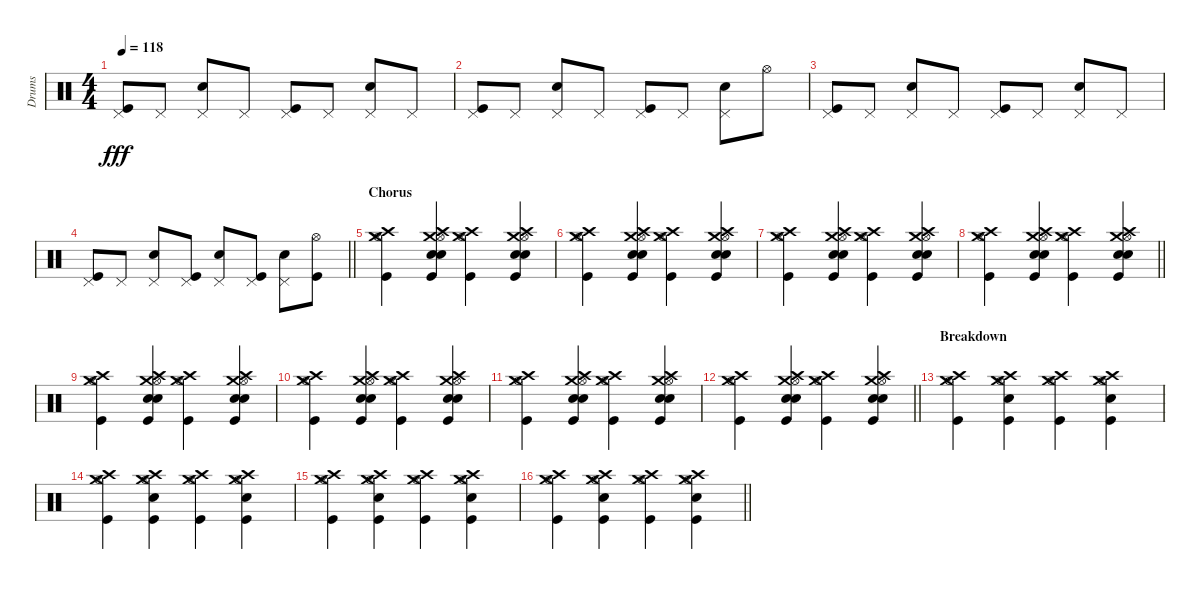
\track ("Drums" "Drums") {instrument percussion}
\staff {score}
\articulation defaults
\ts (4 4)
\tempo 118
\clef neutral
\ks c
("Pedal Hi-Hat (hit)" "Kick (hit)").8{dy fff} "Pedal Hi-Hat (hit)".8 ("Pedal Hi-Hat (hit)" "Electric Snare (hit)").8 "Pedal Hi-Hat (hit)".8 ("Pedal Hi-Hat (hit)" "Kick (hit)").8 "Pedal Hi-Hat (hit)".8 ("Pedal Hi-Hat (hit)" "Electric Snare (hit)").8 "Pedal Hi-Hat (hit)".8 |
("Pedal Hi-Hat (hit)" "Kick (hit)").8 "Pedal Hi-Hat (hit)".8 ("Pedal Hi-Hat (hit)" "Electric Snare (hit)").8 "Pedal Hi-Hat (hit)".8 ("Pedal Hi-Hat (hit)" "Kick (hit)").8 "Pedal Hi-Hat (hit)".8 ("Pedal Hi-Hat (hit)" "Electric Snare (hit)").8 "Hi-Hat (open)".8 |
("Pedal Hi-Hat (hit)" "Kick (hit)").8 "Pedal Hi-Hat (hit)".8 ("Pedal Hi-Hat (hit)" "Electric Snare (hit)").8 "Pedal Hi-Hat (hit)".8 ("Pedal Hi-Hat (hit)" "Kick (hit)").8 "Pedal Hi-Hat (hit)".8 ("Pedal Hi-Hat (hit)" "Electric Snare (hit)").8 "Pedal Hi-Hat (hit)".8 |
\barLineRight lightlight
("Pedal Hi-Hat (hit)" "Kick (hit)").8 "Pedal Hi-Hat (hit)".8 ("Pedal Hi-Hat (hit)" "Electric Snare (hit)").8 ("Pedal Hi-Hat (hit)" "Kick (hit)").8 ("Pedal Hi-Hat (hit)" "Electric Snare (hit)").8 ("Pedal Hi-Hat (hit)" "Kick (hit)").8 ("Pedal Hi-Hat (hit)" "Electric Snare (hit)").8 ("Hi-Hat (open)" "Kick (hit)").8 |
\section ("" "Chorus")
("Crash medium (hit)" "Crash high (hit)" "Hi-Hat (open)" "Kick (hit)").4 ("Crash medium (hit)" "Crash high (hit)" "Snare (hit) 2" "Hi-Hat (open)" "Electric Snare (hit)" "Kick (hit)").4 ("Crash medium (hit)" "Crash high (hit)" "Hi-Hat (open)" "Kick (hit)").4 ("Crash medium (hit)" "Crash high (hit)" "Snare (hit) 2" "Hi-Hat (open)" "Electric Snare (hit)" "Kick (hit)").4 |
("Crash medium (hit)" "Crash high (hit)" "Hi-Hat (open)" "Kick (hit)").4 ("Crash medium (hit)" "Crash high (hit)" "Snare (hit) 2" "Hi-Hat (open)" "Electric Snare (hit)" "Kick (hit)").4 ("Crash medium (hit)" "Crash high (hit)" "Hi-Hat (open)" "Kick (hit)").4 ("Crash medium (hit)" "Crash high (hit)" "Snare (hit) 2" "Hi-Hat (open)" "Electric Snare (hit)" "Kick (hit)").4 |
("Crash medium (hit)" "Crash high (hit)" "Hi-Hat (open)" "Kick (hit)").4 ("Crash medium (hit)" "Crash high (hit)" "Snare (hit) 2" "Hi-Hat (open)" "Electric Snare (hit)" "Kick (hit)").4 ("Crash medium (hit)" "Crash high (hit)" "Hi-Hat (open)" "Kick (hit)").4 ("Crash medium (hit)" "Crash high (hit)" "Snare (hit) 2" "Hi-Hat (open)" "Electric Snare (hit)" "Kick (hit)").4 |
\barLineRight lightlight
("Crash medium (hit)" "Crash high (hit)" "Hi-Hat (open)" "Kick (hit)").4 ("Crash medium (hit)" "Crash high (hit)" "Snare (hit) 2" "Hi-Hat (open)" "Electric Snare (hit)" "Kick (hit)").4 ("Crash medium (hit)" "Crash high (hit)" "Hi-Hat (open)" "Kick (hit)").4 ("Crash medium (hit)" "Crash high (hit)" "Snare (hit) 2" "Hi-Hat (open)" "Electric Snare (hit)" "Kick (hit)").4 |
("Crash medium (hit)" "Crash high (hit)" "Hi-Hat (open)" "Kick (hit)").4 ("Crash medium (hit)" "Crash high (hit)" "Snare (hit) 2" "Hi-Hat (open)" "Electric Snare (hit)" "Kick (hit)").4 ("Crash medium (hit)" "Crash high (hit)" "Hi-Hat (open)" "Kick (hit)").4 ("Crash medium (hit)" "Crash high (hit)" "Snare (hit) 2" "Hi-Hat (open)" "Electric Snare (hit)" "Kick (hit)").4 |
("Crash medium (hit)" "Crash high (hit)" "Hi-Hat (open)" "Kick (hit)").4 ("Crash medium (hit)" "Crash high (hit)" "Snare (hit) 2" "Hi-Hat (open)" "Electric Snare (hit)" "Kick (hit)").4 ("Crash medium (hit)" "Crash high (hit)" "Hi-Hat (open)" "Kick (hit)").4 ("Crash medium (hit)" "Crash high (hit)" "Snare (hit) 2" "Hi-Hat (open)" "Electric Snare (hit)" "Kick (hit)").4 |
("Crash medium (hit)" "Crash high (hit)" "Hi-Hat (open)" "Kick (hit)").4 ("Crash medium (hit)" "Crash high (hit)" "Snare (hit) 2" "Hi-Hat (open)" "Electric Snare (hit)" "Kick (hit)").4 ("Crash medium (hit)" "Crash high (hit)" "Hi-Hat (open)" "Kick (hit)").4 ("Crash medium (hit)" "Crash high (hit)" "Snare (hit) 2" "Hi-Hat (open)" "Electric Snare (hit)" "Kick (hit)").4 |
\barLineRight lightlight
("Crash medium (hit)" "Crash high (hit)" "Hi-Hat (open)" "Kick (hit)").4 ("Crash medium (hit)" "Crash high (hit)" "Snare (hit) 2" "Hi-Hat (open)" "Electric Snare (hit)" "Kick (hit)").4 ("Crash medium (hit)" "Crash high (hit)" "Hi-Hat (open)" "Kick (hit)").4 ("Crash medium (hit)" "Crash high (hit)" "Snare (hit) 2" "Hi-Hat (open)" "Electric Snare (hit)" "Kick (hit)").4 |
\section ("" "Breakdown")
("Crash medium (hit)" "Crash high (hit)" "Hi-Hat (open)" "Kick (hit)").4 ("Crash medium (hit)" "Crash high (hit)" "Hi-Hat (open)" "Electric Snare (hit)" "Kick (hit)").4 ("Crash medium (hit)" "Crash high (hit)" "Hi-Hat (open)" "Kick (hit)").4 ("Crash medium (hit)" "Crash high (hit)" "Hi-Hat (open)" "Electric Snare (hit)" "Kick (hit)").4 |
("Crash medium (hit)" "Crash high (hit)" "Hi-Hat (open)" "Kick (hit)").4 ("Crash medium (hit)" "Crash high (hit)" "Hi-Hat (open)" "Electric Snare (hit)" "Kick (hit)").4 ("Crash medium (hit)" "Crash high (hit)" "Hi-Hat (open)" "Kick (hit)").4 ("Crash medium (hit)" "Crash high (hit)" "Hi-Hat (open)" "Electric Snare (hit)" "Kick (hit)").4 |
("Crash medium (hit)" "Crash high (hit)" "Hi-Hat (open)" "Kick (hit)").4 ("Crash medium (hit)" "Crash high (hit)" "Hi-Hat (open)" "Electric Snare (hit)" "Kick (hit)").4 ("Crash medium (hit)" "Crash high (hit)" "Hi-Hat (open)" "Kick (hit)").4 ("Crash medium (hit)" "Crash high (hit)" "Hi-Hat (open)" "Electric Snare (hit)" "Kick (hit)").4 |
\barLineRight lightlight
("Crash medium (hit)" "Crash high (hit)" "Hi-Hat (open)" "Kick (hit)").4 ("Crash medium (hit)" "Crash high (hit)" "Hi-Hat (open)" "Electric Snare (hit)" "Kick (hit)").4 ("Crash medium (hit)" "Crash high (hit)" "Hi-Hat (open)" "Kick (hit)").4 ("Crash medium (hit)" "Crash high (hit)" "Hi-Hat (open)" "Electric Snare (hit)" "Kick (hit)").4
